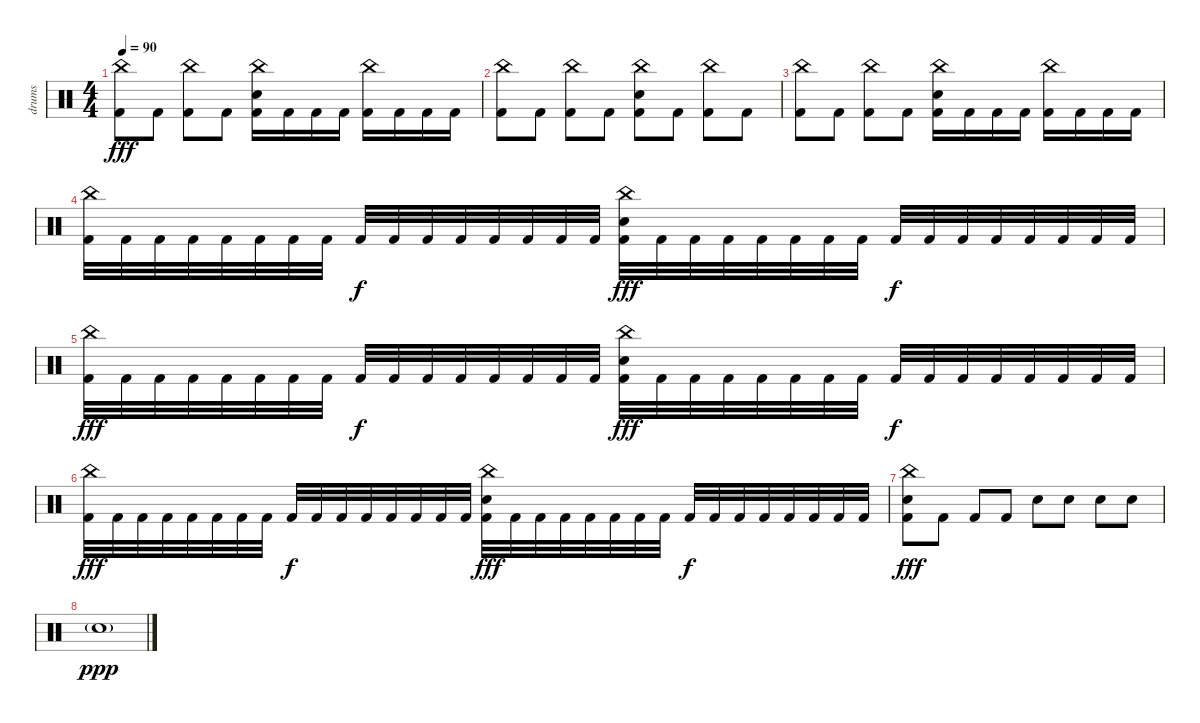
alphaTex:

\track ("drums" "drums") {instrument percussion}
\staff {score}
\articulation defaults
\ts (4 4)
\tempo 90
\clef neutral
\ks c
("China (hit)" "Kick (hit) 2").8{dy fff} "Kick (hit) 2".8 ("China (hit)" "Kick (hit) 2").8 "Kick (hit) 2".8 ("China (hit)" "Electric Snare (hit)" "Kick (hit) 2").16 "Kick (hit) 2".16 "Kick (hit) 2".16 "Kick (hit) 2".16 ("China (hit)" "Kick (hit) 2").16 "Kick (hit) 2".16 "Kick (hit) 2".16 "Kick (hit) 2".16 |
("China (hit)" "Kick (hit) 2").8 "Kick (hit) 2".8 ("China (hit)" "Kick (hit) 2").8 "Kick (hit) 2".8 ("China (hit)" "Electric Snare (hit)" "Kick (hit) 2").8 "Kick (hit) 2".8 ("China (hit)" "Kick (hit) 2").8 "Kick (hit) 2".8 |
("China (hit)" "Kick (hit) 2").8 "Kick (hit) 2".8 ("China (hit)" "Kick (hit) 2").8 "Kick (hit) 2".8 ("China (hit)" "Electric Snare (hit)" "Kick (hit) 2").16 "Kick (hit) 2".16 "Kick (hit) 2".16 "Kick (hit) 2".16 ("China (hit)" "Kick (hit) 2").16 "Kick (hit) 2".16 "Kick (hit) 2".16 "Kick (hit) 2".16 |
("China (hit)" "Kick (hit) 2").32 "Kick (hit) 2".32 "Kick (hit) 2".32 "Kick (hit) 2".32 "Kick (hit) 2".32 "Kick (hit) 2".32 "Kick (hit) 2".32 "Kick (hit) 2".32 "Kick (hit) 2".32{dy f} "Kick (hit) 2".32 "Kick (hit) 2".32 "Kick (hit) 2".32 "Kick (hit) 2".32 "Kick (hit) 2".32 "Kick (hit) 2".32 "Kick (hit) 2".32 ("China (hit)" "Electric Snare (hit)" "Kick (hit) 2").32{dy fff} "Kick (hit) 2".32 "Kick (hit) 2".32 "Kick (hit) 2".32 "Kick (hit) 2".32 "Kick (hit) 2".32 "Kick (hit) 2".32 "Kick (hit) 2".32 "Kick (hit) 2".32{dy f} "Kick (hit) 2".32 "Kick (hit) 2".32 "Kick (hit) 2".32 "Kick (hit) 2".32 "Kick (hit) 2".32 "Kick (hit) 2".32 "Kick (hit) 2".32 |
("China (hit)" "Kick (hit) 2").32{dy fff} "Kick (hit) 2".32 "Kick (hit) 2".32 "Kick (hit) 2".32 "Kick (hit) 2".32 "Kick (hit) 2".32 "Kick (hit) 2".32 "Kick (hit) 2".32 "Kick (hit) 2".32{dy f} "Kick (hit) 2".32 "Kick (hit) 2".32 "Kick (hit) 2".32 "Kick (hit) 2".32 "Kick (hit) 2".32 "Kick (hit) 2".32 "Kick (hit) 2".32 ("China (hit)" "Electric Snare (hit)" "Kick (hit) 2").32{dy fff} "Kick (hit) 2".32 "Kick (hit) 2".32 "Kick (hit) 2".32 "Kick (hit) 2".32 "Kick (hit) 2".32 "Kick (hit) 2".32 "Kick (hit) 2".32 "Kick (hit) 2".32{dy f} "Kick (hit) 2".32 "Kick (hit) 2".32 "Kick (hit) 2".32 "Kick (hit) 2".32 "Kick (hit) 2".32 "Kick (hit) 2".32 "Kick (hit) 2".32 |
("China (hit)" "Kick (hit) 2").32{dy fff} "Kick (hit) 2".32 "Kick (hit) 2".32 "Kick (hit) 2".32 "Kick (hit) 2".32 "Kick (hit) 2".32 "Kick (hit) 2".32 "Kick (hit) 2".32 "Kick (hit) 2".32{dy f} "Kick (hit) 2".32 "Kick (hit) 2".32 "Kick (hit) 2".32 "Kick (hit) 2".32 "Kick (hit) 2".32 "Kick (hit) 2".32 "Kick (hit) 2".32 ("China (hit)" "Electric Snare (hit)" "Kick (hit) 2").32{dy fff} "Kick (hit) 2".32 "Kick (hit) 2".32 "Kick (hit) 2".32 "Kick (hit) 2".32 "Kick (hit) 2".32 "Kick (hit) 2".32 "Kick (hit) 2".32 "Kick (hit) 2".32{dy f} "Kick (hit) 2".32 "Kick (hit) 2".32 "Kick (hit) 2".32 "Kick (hit) 2".32 "Kick (hit) 2".32 "Kick (hit) 2".32 "Kick (hit) 2".32 |
("China (hit)" "Electric Snare (hit)" "Kick (hit) 2").8{dy fff} "Kick (hit) 2".8 "Kick (hit) 2".8 "Kick (hit) 2".8 "Electric Snare (hit)".8 "Electric Snare (hit)".8 "Electric Snare (hit)".8 "Electric Snare (hit)".8 |
"Electric Snare (hit)"{g}.1{dy ppp}
